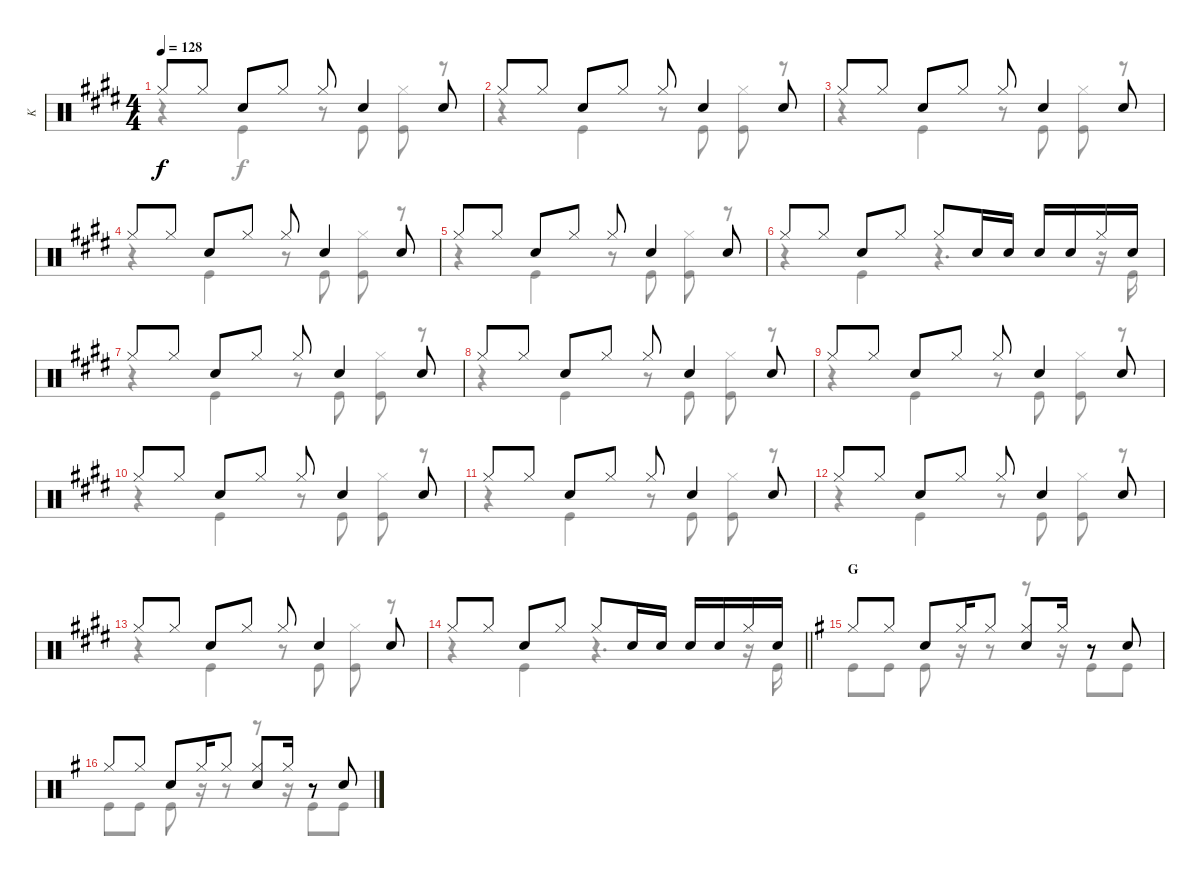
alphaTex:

\track ("K" "K") {instrument percussion}
\staff {score}
\articulation defaults
\voice
\ts (4 4)
\tempo 128
\clef neutral
\ks e "Hi-Hat (closed)".8{dy f} "Hi-Hat (closed)".8 "Snare (hit) 2".8 "Hi-Hat (closed)".8 "Hi-Hat (closed)".8 "Snare (hit) 2".4 "Snare (hit) 2".8
|
"Hi-Hat (closed)".8 "Hi-Hat (closed)".8 "Snare (hit) 2".8 "Hi-Hat (closed)".8 "Hi-Hat (closed)".8 "Snare (hit) 2".4 "Snare (hit) 2".8 |
"Hi-Hat (closed)".8 "Hi-Hat (closed)".8 "Snare (hit) 2".8 "Hi-Hat (closed)".8 "Hi-Hat (closed)".8 "Snare (hit) 2".4 "Snare (hit) 2".8 |
"Hi-Hat (closed)".8 "Hi-Hat (closed)".8 "Snare (hit) 2".8 "Hi-Hat (closed)".8 "Hi-Hat (closed)".8 "Snare (hit) 2".4 "Snare (hit) 2".8 |
"Hi-Hat (closed)".8 "Hi-Hat (closed)".8 "Snare (hit) 2".8 "Hi-Hat (closed)".8 "Hi-Hat (closed)".8 "Snare (hit) 2".4 "Snare (hit) 2".8 |
"Hi-Hat (closed)".8 "Hi-Hat (closed)".8 "Snare (hit) 2".8 "Hi-Hat (closed)".8 "Hi-Hat (closed)".8 "Snare (hit) 2".16 "Snare (hit) 2".16 "Snare (hit) 2".16 "Snare (hit) 2".16 "Hi-Hat (closed)".16 "Snare (hit) 2".16 |
"Hi-Hat (closed)".8 "Hi-Hat (closed)".8 "Snare (hit) 2".8 "Hi-Hat (closed)".8 "Hi-Hat (closed)".8 "Snare (hit) 2".4 "Snare (hit) 2".8 |
"Hi-Hat (closed)".8 "Hi-Hat (closed)".8 "Snare (hit) 2".8 "Hi-Hat (closed)".8 "Hi-Hat (closed)".8 "Snare (hit) 2".4 "Snare (hit) 2".8 |
"Hi-Hat (closed)".8 "Hi-Hat (closed)".8 "Snare (hit) 2".8 "Hi-Hat (closed)".8 "Hi-Hat (closed)".8 "Snare (hit) 2".4 "Snare (hit) 2".8 |
"Hi-Hat (closed)".8 "Hi-Hat (closed)".8 "Snare (hit) 2".8 "Hi-Hat (closed)".8 "Hi-Hat (closed)".8 "Snare (hit) 2".4 "Snare (hit) 2".8 |
"Hi-Hat (closed)".8 "Hi-Hat (closed)".8 "Snare (hit) 2".8 "Hi-Hat (closed)".8 "Hi-Hat (closed)".8 "Snare (hit) 2".4 "Snare (hit) 2".8 |
"Hi-Hat (closed)".8 "Hi-Hat (closed)".8 "Snare (hit) 2".8 "Hi-Hat (closed)".8 "Hi-Hat (closed)".8 "Snare (hit) 2".4 "Snare (hit) 2".8 |
"Hi-Hat (closed)".8 "Hi-Hat (closed)".8 "Snare (hit) 2".8 "Hi-Hat (closed)".8 "Hi-Hat (closed)".8 "Snare (hit) 2".4 "Snare (hit) 2".8 |
\barLineRight lightlight "Hi-Hat (closed)".8 "Hi-Hat (closed)".8 "Snare (hit) 2".8 "Hi-Hat (closed)".8 "Hi-Hat (closed)".8 "Snare (hit) 2".16 "Snare (hit) 2".16 "Snare (hit) 2".16 "Snare (hit) 2".16 "Hi-Hat (closed)".16 "Snare (hit) 2".16
|
\section ("" "G")
\ks g "Hi-Hat (closed)".8 "Hi-Hat (closed)".8 "Snare (hit) 2".8 "Hi-Hat (closed)".16 "Hi-Hat (closed)".8
("Hi-Hat (closed)" "Snare (hit) 2").8 "Hi-Hat (closed)".16 r.8 "Snare (hit) 2".8 |
"Hi-Hat (closed)".8 "Hi-Hat (closed)".8 "Snare (hit) 2".8 "Hi-Hat (closed)".16 "Hi-Hat (closed)".8 ("Hi-Hat (closed)" "Snare (hit) 2").8 "Hi-Hat (closed)".16 r.8 "Snare (hit) 2".8
\voice
\clef neutral
\ottava regular
\simile none
\ks e
r.4{dy f} "Kick (hit)".4 r.8 "Kick (hit)".8 ("Hi-Hat (closed)" "Kick (hit)").8 r.8 |
r.4 "Kick (hit)".4 r.8 "Kick (hit)".8 ("Hi-Hat (closed)" "Kick (hit)").8 r.8 |
r.4 "Kick (hit)".4 r.8 "Kick (hit)".8 ("Hi-Hat (closed)" "Kick (hit)").8 r.8 |
r.4 "Kick (hit)".4 r.8 "Kick (hit)".8 ("Hi-Hat (closed)" "Kick (hit)").8 r.8 |
r.4 "Kick (hit)".4 r.8 "Kick (hit)".8 ("Hi-Hat (closed)" "Kick (hit)").8 r.8 |
r.4 "Kick (hit)".4 r.4{d} r.16 "Kick (hit)".16 |
r.4 "Kick (hit)".4 r.8 "Kick (hit)".8 ("Hi-Hat (closed)" "Kick (hit)").8 r.8 |
r.4 "Kick (hit)".4 r.8 "Kick (hit)".8 ("Hi-Hat (closed)" "Kick (hit)").8 r.8 |
r.4 "Kick (hit)".4 r.8 "Kick (hit)".8 ("Hi-Hat (closed)" "Kick (hit)").8 r.8 |
r.4 "Kick (hit)".4 r.8 "Kick (hit)".8 ("Hi-Hat (closed)" "Kick (hit)").8 r.8 |
r.4 "Kick (hit)".4 r.8 "Kick (hit)".8 ("Hi-Hat (closed)" "Kick (hit)").8 r.8 |
r.4 "Kick (hit)".4 r.8 "Kick (hit)".8 ("Hi-Hat (closed)" "Kick (hit)").8 r.8 |
r.4 "Kick (hit)".4 r.8 "Kick (hit)".8 ("Hi-Hat (closed)" "Kick (hit)").8 r.8 |
\barLineRight lightlight
r.4 "Kick (hit)".4 r.4{d} r.16 "Kick (hit)".16 |
\ks g "Kick (hit)".8 "Kick (hit)".8 "Kick (hit)".8
r.16 r.8 r.8 r.16 "Kick (hit)".8 "Kick (hit)".8 |
"Kick (hit)".8 "Kick (hit)".8 "Kick (hit)".8 r.16 r.8 r.8 r.16 "Kick (hit)".8 "Kick (hit)".8
